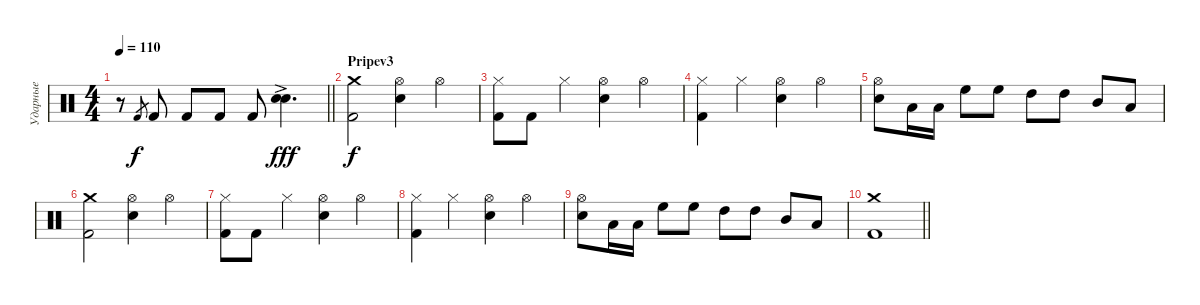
\track ("Ударные" "Ударные") {instrument percussion}
\staff {score}
\articulation defaults
\ts (4 4)
\tempo 110
\clef neutral
\barLineRight lightlight
\ks c
r.8{dy f} "Kick (hit) 2".8{gr} "Kick (hit) 2".8 "Kick (hit) 2".8 "Kick (hit) 2".8 "Kick (hit) 2".8 ("Snare (hit) 2" "Snare (hit) 2"{ac}).4{d dy fff} |
\section ("" "Pripev3")
("Crash medium (hit)" "Kick (hit) 2").2{dy f} ("Hi-Hat (open)" "Snare (hit) 2").4 "Hi-Hat (open)".4 |
("Hi-Hat (closed)" "Kick (hit) 2").8 "Kick (hit) 2".8 "Hi-Hat (closed)".4 ("Hi-Hat (open)" "Snare (hit) 2").4 "Hi-Hat (open)".4 |
("Hi-Hat (closed)" "Kick (hit) 2").4 "Hi-Hat (closed)".4 ("Hi-Hat (open)" "Snare (hit) 2").4 "Hi-Hat (open)".4 |
("Hi-Hat (open)" "Snare (hit) 2").8 "Low Tom (hit)".16 "Low Tom (hit)".16 "High Floor Tom (hit)".8 "High Floor Tom (hit)".8 "High Tom (hit)".8 "High Tom (hit)".8 "Mid Tom (hit)".8 "Low Tom (hit)".8 |
("Crash medium (hit)" "Kick (hit) 2").2 ("Hi-Hat (open)" "Snare (hit) 2").4 "Hi-Hat (open)".4 |
("Hi-Hat (closed)" "Kick (hit) 2").8 "Kick (hit) 2".8 "Hi-Hat (closed)".4 ("Hi-Hat (open)" "Snare (hit) 2").4 "Hi-Hat (open)".4 |
("Hi-Hat (closed)" "Kick (hit) 2").4 "Hi-Hat (closed)".4 ("Hi-Hat (open)" "Snare (hit) 2").4 "Hi-Hat (open)".4 |
("Hi-Hat (open)" "Snare (hit) 2").8 "Low Tom (hit)".16 "Low Tom (hit)".16 "High Floor Tom (hit)".8 "High Floor Tom (hit)".8 "High Tom (hit)".8 "High Tom (hit)".8 "Mid Tom (hit)".8 "Low Tom (hit)".8 |
\barLineRight lightlight
("Crash medium (hit)" "Kick (hit) 2").1
